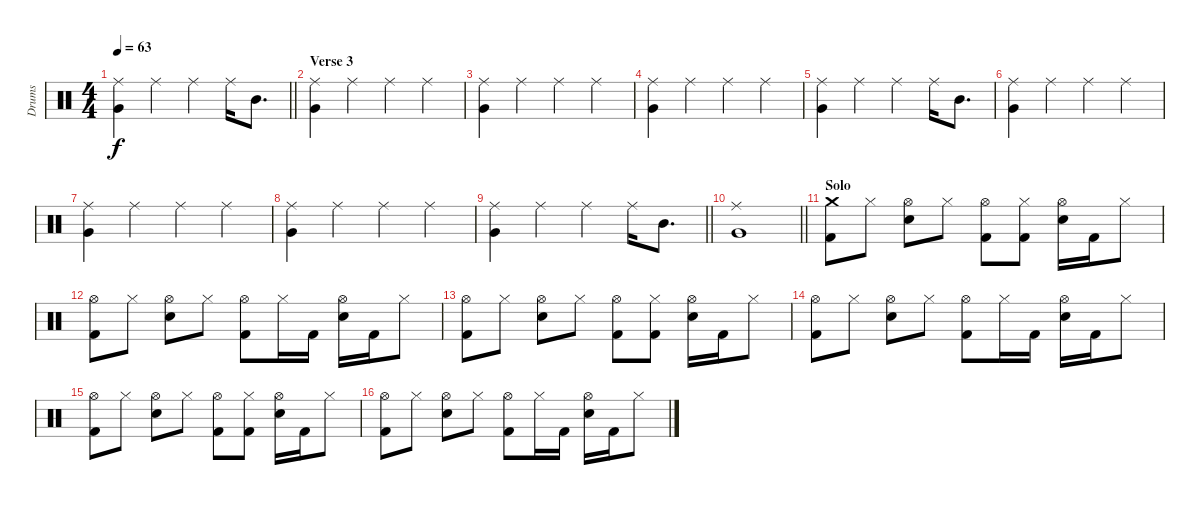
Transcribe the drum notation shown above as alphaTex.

\track ("Drums" "Drums") {instrument percussion}
\staff {score}
\articulation defaults
\ts (4 4)
\tempo 63
\clef neutral
\barLineRight lightlight
\ks c
("Ride (middle)" "Very Low Tom (hit)").4{dy f} "Ride (middle)".4 "Ride (middle)".4 "Ride (middle)".16 "Mid Tom (hit)".8{d} |
\section ("" "Verse 3")
("Ride (middle)" "Very Low Tom (hit)").4 "Ride (middle)".4 "Ride (middle)".4 "Ride (middle)".4 |
("Ride (middle)" "Very Low Tom (hit)").4 "Ride (middle)".4 "Ride (middle)".4 "Ride (middle)".4 |
("Ride (middle)" "Very Low Tom (hit)").4 "Ride (middle)".4 "Ride (middle)".4 "Ride (middle)".4 |
("Ride (middle)" "Very Low Tom (hit)").4 "Ride (middle)".4 "Ride (middle)".4 "Ride (middle)".16 "Mid Tom (hit)".8{d} |
("Ride (middle)" "Very Low Tom (hit)").4 "Ride (middle)".4 "Ride (middle)".4 "Ride (middle)".4 |
("Ride (middle)" "Very Low Tom (hit)").4 "Ride (middle)".4 "Ride (middle)".4 "Ride (middle)".4 |
("Ride (middle)" "Very Low Tom (hit)").4 "Ride (middle)".4 "Ride (middle)".4 "Ride (middle)".4 |
\barLineRight lightlight
("Ride (middle)" "Very Low Tom (hit)").4 "Ride (middle)".4 "Ride (middle)".4 "Ride (middle)".16 "Mid Tom (hit)".8{d} |
\barLineRight lightlight
("Ride (middle)" "Very Low Tom (hit)").1 |
\section ("" "Solo")
("Crash medium (hit)" "Kick (hit) 2").8 "Hi-Hat (closed)".8 ("Hi-Hat (open)" "Snare (hit) 2").8 "Hi-Hat (closed)".8 ("Hi-Hat (open)" "Kick (hit) 2").8 ("Hi-Hat (closed)" "Kick (hit) 2").8 ("Hi-Hat (open)" "Snare (hit) 2").16 "Kick (hit) 2".16 "Hi-Hat (closed)".8 |
("Hi-Hat (open)" "Kick (hit) 2").8 "Hi-Hat (closed)".8 ("Hi-Hat (open)" "Snare (hit) 2").8 "Hi-Hat (closed)".8 ("Hi-Hat (open)" "Kick (hit) 2").8 "Hi-Hat (closed)".16 "Kick (hit) 2".16 ("Hi-Hat (open)" "Snare (hit) 2").16 "Kick (hit) 2".16 "Hi-Hat (closed)".8 |
("Hi-Hat (open)" "Kick (hit) 2").8 "Hi-Hat (closed)".8 ("Hi-Hat (open)" "Snare (hit) 2").8 "Hi-Hat (closed)".8 ("Hi-Hat (open)" "Kick (hit) 2").8 ("Hi-Hat (closed)" "Kick (hit) 2").8 ("Hi-Hat (open)" "Snare (hit) 2").16 "Kick (hit) 2".16 "Hi-Hat (closed)".8 |
("Hi-Hat (open)" "Kick (hit) 2").8 "Hi-Hat (closed)".8 ("Hi-Hat (open)" "Snare (hit) 2").8 "Hi-Hat (closed)".8 ("Hi-Hat (open)" "Kick (hit) 2").8 "Hi-Hat (closed)".16 "Kick (hit) 2".16 ("Hi-Hat (open)" "Snare (hit) 2").16 "Kick (hit) 2".16 "Hi-Hat (closed)".8 |
("Hi-Hat (open)" "Kick (hit) 2").8 "Hi-Hat (closed)".8 ("Hi-Hat (open)" "Snare (hit) 2").8 "Hi-Hat (closed)".8 ("Hi-Hat (open)" "Kick (hit) 2").8 ("Hi-Hat (closed)" "Kick (hit) 2").8 ("Hi-Hat (open)" "Snare (hit) 2").16 "Kick (hit) 2".16 "Hi-Hat (closed)".8 |
("Hi-Hat (open)" "Kick (hit) 2").8 "Hi-Hat (closed)".8 ("Hi-Hat (open)" "Snare (hit) 2").8 "Hi-Hat (closed)".8 ("Hi-Hat (open)" "Kick (hit) 2").8 "Hi-Hat (closed)".16 "Kick (hit) 2".16 ("Hi-Hat (open)" "Snare (hit) 2").16 "Kick (hit) 2".16 "Hi-Hat (closed)".8
